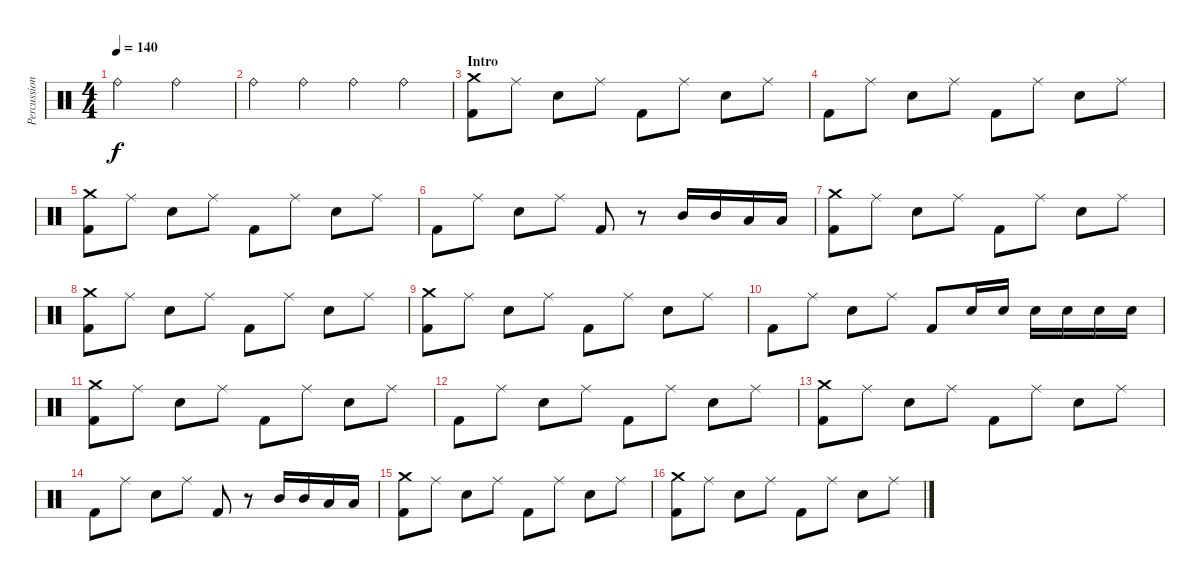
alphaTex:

\track ("Percussion" "Percussion") {instrument percussion}
\staff {score}
\articulation defaults
\ts (4 4)
\tempo 140
\clef neutral
\ks c "Ride (bell)".2{dy f} "Ride (bell)".2
|
"Ride (bell)".4 "Ride (bell)".4 "Ride (bell)".4 "Ride (bell)".4 |
\section ("" "Intro")
("Crash medium (hit)" "Kick (hit) 2").8 "Ride (middle)".8 "Electric Snare (hit)".8 "Ride (middle)".8 "Kick (hit) 2".8 "Ride (middle)".8 "Electric Snare (hit)".8 "Ride (middle)".8 |
"Kick (hit) 2".8 "Ride (middle)".8 "Electric Snare (hit)".8 "Ride (middle)".8 "Kick (hit) 2".8 "Ride (middle)".8 "Electric Snare (hit)".8 "Ride (middle)".8 |
("Crash medium (hit)" "Kick (hit) 2").8 "Ride (middle)".8 "Electric Snare (hit)".8 "Ride (middle)".8 "Kick (hit) 2".8 "Ride (middle)".8 "Electric Snare (hit)".8 "Ride (middle)".8 |
"Kick (hit) 2".8 "Ride (middle)".8 "Electric Snare (hit)".8 "Ride (middle)".8 "Kick (hit) 2".8 r.8 "Mid Tom (hit)".16 "Mid Tom (hit)".16 "Low Tom (hit)".16 "Low Tom (hit)".16 |
("Crash medium (hit)" "Kick (hit) 2").8 "Ride (middle)".8 "Electric Snare (hit)".8 "Ride (middle)".8 "Kick (hit) 2".8 "Ride (middle)".8 "Electric Snare (hit)".8 "Ride (middle)".8 |
("Crash medium (hit)" "Kick (hit) 2").8 "Ride (middle)".8 "Electric Snare (hit)".8 "Ride (middle)".8 "Kick (hit) 2".8 "Ride (middle)".8 "Electric Snare (hit)".8 "Ride (middle)".8 |
("Crash medium (hit)" "Kick (hit) 2").8 "Ride (middle)".8 "Electric Snare (hit)".8 "Ride (middle)".8 "Kick (hit) 2".8 "Ride (middle)".8 "Electric Snare (hit)".8 "Ride (middle)".8 |
"Kick (hit) 2".8 "Ride (middle)".8 "Electric Snare (hit)".8 "Ride (middle)".8 "Kick (hit) 2".8 "Electric Snare (hit)".16 "Electric Snare (hit)".16 "Electric Snare (hit)".16 "Electric Snare (hit)".16 "Electric Snare (hit)".16 "Electric Snare (hit)".16 |
("Crash medium (hit)" "Kick (hit) 2").8 "Ride (middle)".8 "Electric Snare (hit)".8 "Ride (middle)".8 "Kick (hit) 2".8 "Ride (middle)".8 "Electric Snare (hit)".8 "Ride (middle)".8 |
"Kick (hit) 2".8 "Ride (middle)".8 "Electric Snare (hit)".8 "Ride (middle)".8 "Kick (hit) 2".8 "Ride (middle)".8 "Electric Snare (hit)".8 "Ride (middle)".8 |
("Crash medium (hit)" "Kick (hit) 2").8 "Ride (middle)".8 "Electric Snare (hit)".8 "Ride (middle)".8 "Kick (hit) 2".8 "Ride (middle)".8 "Electric Snare (hit)".8 "Ride (middle)".8 |
"Kick (hit) 2".8 "Ride (middle)".8 "Electric Snare (hit)".8 "Ride (middle)".8 "Kick (hit) 2".8 r.8 "Mid Tom (hit)".16 "Mid Tom (hit)".16 "Low Tom (hit)".16 "Low Tom (hit)".16 |
("Crash medium (hit)" "Kick (hit) 2").8 "Ride (middle)".8 "Electric Snare (hit)".8 "Ride (middle)".8 "Kick (hit) 2".8 "Ride (middle)".8 "Electric Snare (hit)".8 "Ride (middle)".8 |
("Crash medium (hit)" "Kick (hit) 2").8 "Ride (middle)".8 "Electric Snare (hit)".8 "Ride (middle)".8 "Kick (hit) 2".8 "Ride (middle)".8 "Electric Snare (hit)".8 "Ride (middle)".8
